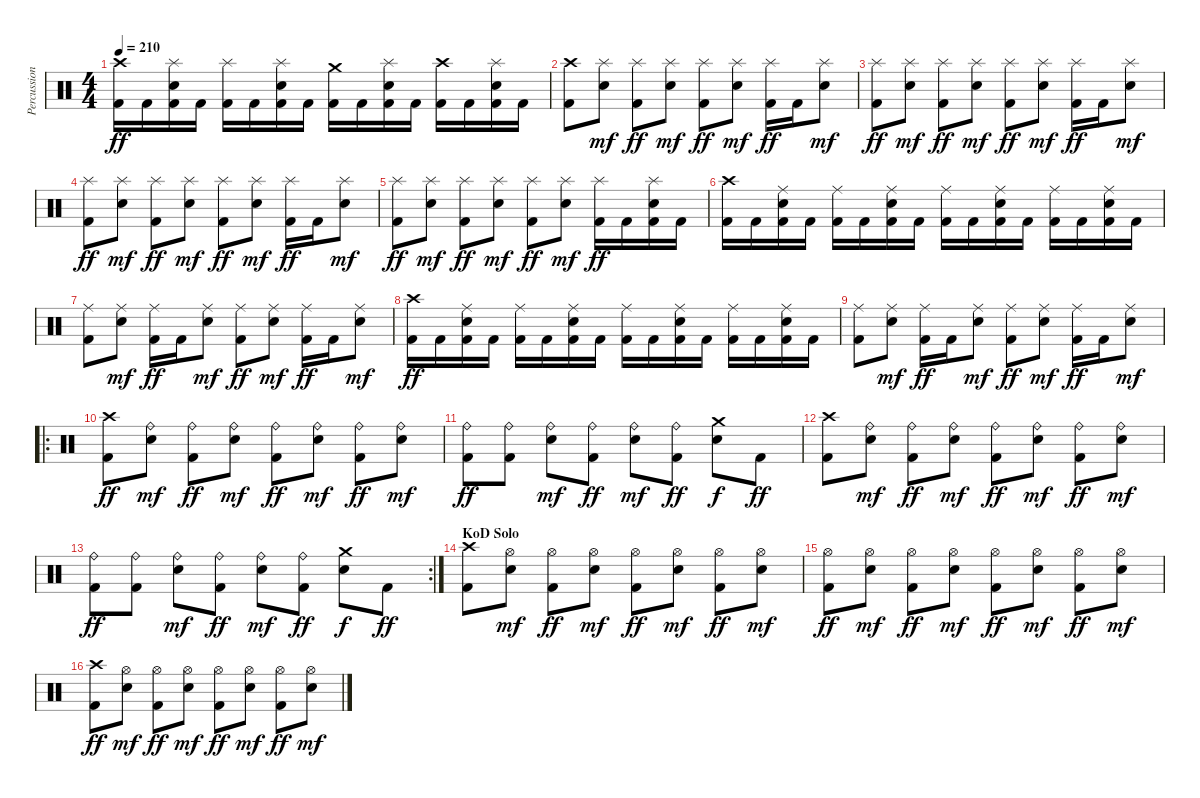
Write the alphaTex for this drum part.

\track ("Percussion" "Percussion") {instrument percussion}
\staff {score}
\articulation defaults
\ts (4 4)
\tempo 210
\clef neutral
\ks c
("Crash high (hit)" "Kick (hit) 2").16{dy ff} "Kick (hit) 2".16 ("Splash (hit)" "Snare (hit) 2" "Kick (hit) 2").16 "Kick (hit) 2".16 ("Splash (hit)" "Kick (hit) 2").16 "Kick (hit) 2".16 ("Splash (hit)" "Snare (hit) 2" "Kick (hit) 2").16 "Kick (hit) 2".16 ("Crash medium (hit)" "Kick (hit) 2").16 "Kick (hit) 2".16 ("Splash (hit)" "Snare (hit) 2" "Kick (hit) 2").16 "Kick (hit) 2".16 ("Crash high (hit)" "Kick (hit) 2").16 "Kick (hit) 2".16 ("Splash (hit)" "Snare (hit) 2" "Kick (hit) 2").16 "Kick (hit) 2".16 |
("Crash high (hit)" "Kick (hit) 2").8 ("Splash (hit)" "Snare (hit) 2").8{dy mf} ("Splash (hit)" "Kick (hit) 2").8{dy ff} ("Splash (hit)" "Snare (hit) 2").8{dy mf} ("Splash (hit)" "Kick (hit) 2").8{dy ff} ("Splash (hit)" "Snare (hit) 2").8{dy mf} ("Splash (hit)" "Kick (hit) 2").16{dy ff} "Kick (hit) 2".16 ("Splash (hit)" "Snare (hit) 2").8{dy mf} |
("Splash (hit)" "Kick (hit) 2").8{dy ff} ("Splash (hit)" "Snare (hit) 2").8{dy mf} ("Splash (hit)" "Kick (hit) 2").8{dy ff} ("Splash (hit)" "Snare (hit) 2").8{dy mf} ("Splash (hit)" "Kick (hit) 2").8{dy ff} ("Splash (hit)" "Snare (hit) 2").8{dy mf} ("Splash (hit)" "Kick (hit) 2").16{dy ff} "Kick (hit) 2".16 ("Splash (hit)" "Snare (hit) 2").8{dy mf} |
("Splash (hit)" "Kick (hit) 2").8{dy ff} ("Splash (hit)" "Snare (hit) 2").8{dy mf} ("Splash (hit)" "Kick (hit) 2").8{dy ff} ("Splash (hit)" "Snare (hit) 2").8{dy mf} ("Splash (hit)" "Kick (hit) 2").8{dy ff} ("Splash (hit)" "Snare (hit) 2").8{dy mf} ("Splash (hit)" "Kick (hit) 2").16{dy ff} "Kick (hit) 2".16 ("Splash (hit)" "Snare (hit) 2").8{dy mf} |
("Splash (hit)" "Kick (hit) 2").8{dy ff} ("Splash (hit)" "Snare (hit) 2").8{dy mf} ("Splash (hit)" "Kick (hit) 2").8{dy ff} ("Splash (hit)" "Snare (hit) 2").8{dy mf} ("Splash (hit)" "Kick (hit) 2").8{dy ff} ("Splash (hit)" "Snare (hit) 2").8{dy mf} ("Splash (hit)" "Kick (hit) 2").16{dy ff} "Kick (hit) 2".16 ("Splash (hit)" "Snare (hit) 2" "Kick (hit) 2").16 "Kick (hit) 2".16 |
("Crash high (hit)" "Kick (hit) 2").16 "Kick (hit) 2".16 ("Ride (middle)" "Snare (hit) 2" "Kick (hit) 2").16 "Kick (hit) 2".16 ("Ride (middle)" "Kick (hit) 2").16 "Kick (hit) 2".16 ("Ride (middle)" "Snare (hit) 2" "Kick (hit) 2").16 "Kick (hit) 2".16 ("Ride (middle)" "Kick (hit) 2").16 "Kick (hit) 2".16 ("Ride (middle)" "Snare (hit) 2" "Kick (hit) 2").16 "Kick (hit) 2".16 ("Ride (middle)" "Kick (hit) 2").16 "Kick (hit) 2".16 ("Ride (middle)" "Snare (hit) 2" "Kick (hit) 2").16 "Kick (hit) 2".16 |
("Ride (middle)" "Kick (hit) 2").8 ("Ride (middle)" "Snare (hit) 2").8{dy mf} ("Ride (middle)" "Kick (hit) 2").16{dy ff} "Kick (hit) 2".16 ("Ride (middle)" "Snare (hit) 2").8{dy mf} ("Ride (middle)" "Kick (hit) 2").8{dy ff} ("Ride (middle)" "Snare (hit) 2").8{dy mf} ("Ride (middle)" "Kick (hit) 2").16{dy ff} "Kick (hit) 2".16 ("Ride (middle)" "Snare (hit) 2").8{dy mf} |
("Crash high (hit)" "Kick (hit) 2").16{dy ff} "Kick (hit) 2".16 ("Ride (middle)" "Snare (hit) 2" "Kick (hit) 2").16 "Kick (hit) 2".16 ("Ride (middle)" "Kick (hit) 2").16 "Kick (hit) 2".16 ("Ride (middle)" "Snare (hit) 2" "Kick (hit) 2").16 "Kick (hit) 2".16 ("Ride (middle)" "Kick (hit) 2").16 "Kick (hit) 2".16 ("Ride (middle)" "Snare (hit) 2" "Kick (hit) 2").16 "Kick (hit) 2".16 ("Ride (middle)" "Kick (hit) 2").16 "Kick (hit) 2".16 ("Ride (middle)" "Snare (hit) 2" "Kick (hit) 2").16 "Kick (hit) 2".16 |
("Ride (middle)" "Kick (hit) 2").8 ("Ride (middle)" "Snare (hit) 2").8{dy mf} ("Ride (middle)" "Kick (hit) 2").16{dy ff} "Kick (hit) 2".16 ("Ride (middle)" "Snare (hit) 2").8{dy mf} ("Ride (middle)" "Kick (hit) 2").8{dy ff} ("Ride (middle)" "Snare (hit) 2").8{dy mf} ("Ride (middle)" "Kick (hit) 2").16{dy ff} "Kick (hit) 2".16 ("Ride (middle)" "Snare (hit) 2").8{dy mf} |
\ro
("Crash high (hit)" "Kick (hit) 2").8{dy ff} ("Ride (bell)" "Snare (hit) 2").8{dy mf} ("Ride (bell)" "Kick (hit) 2").8{dy ff} ("Ride (bell)" "Snare (hit) 2").8{dy mf} ("Ride (bell)" "Kick (hit) 2").8{dy ff} ("Ride (bell)" "Snare (hit) 2").8{dy mf} ("Ride (bell)" "Kick (hit) 2").8{dy ff} ("Ride (bell)" "Snare (hit) 2").8{dy mf} |
("Ride (bell)" "Kick (hit) 2").8{dy ff} ("Ride (bell)" "Kick (hit) 2").8 ("Ride (bell)" "Snare (hit) 2").8{dy mf} ("Ride (bell)" "Kick (hit) 2").8{dy ff} ("Ride (bell)" "Snare (hit) 2").8{dy mf} ("Ride (bell)" "Kick (hit) 2").8{dy ff} ("Crash medium (hit)" "Snare (hit) 2").8{dy f} "Kick (hit) 2".8{dy ff} |
("Crash high (hit)" "Kick (hit) 2").8 ("Ride (bell)" "Snare (hit) 2").8{dy mf} ("Ride (bell)" "Kick (hit) 2").8{dy ff} ("Ride (bell)" "Snare (hit) 2").8{dy mf} ("Ride (bell)" "Kick (hit) 2").8{dy ff} ("Ride (bell)" "Snare (hit) 2").8{dy mf} ("Ride (bell)" "Kick (hit) 2").8{dy ff} ("Ride (bell)" "Snare (hit) 2").8{dy mf} |
\rc 2
("Ride (bell)" "Kick (hit) 2").8{dy ff} ("Ride (bell)" "Kick (hit) 2").8 ("Ride (bell)" "Snare (hit) 2").8{dy mf} ("Ride (bell)" "Kick (hit) 2").8{dy ff} ("Ride (bell)" "Snare (hit) 2").8{dy mf} ("Ride (bell)" "Kick (hit) 2").8{dy ff} ("Crash medium (hit)" "Snare (hit) 2").8{dy f} "Kick (hit) 2".8{dy ff} |
\section ("" "KoD Solo")
("Crash high (hit)" "Kick (hit) 2").8 ("Hi-Hat (open)" "Snare (hit) 2").8{dy mf} ("Hi-Hat (open)" "Kick (hit) 2").8{dy ff} ("Hi-Hat (open)" "Snare (hit) 2").8{dy mf} ("Hi-Hat (open)" "Kick (hit) 2").8{dy ff} ("Hi-Hat (open)" "Snare (hit) 2").8{dy mf} ("Hi-Hat (open)" "Kick (hit) 2").8{dy ff} ("Hi-Hat (open)" "Snare (hit) 2").8{dy mf} |
("Hi-Hat (open)" "Kick (hit) 2").8{dy ff} ("Hi-Hat (open)" "Snare (hit) 2").8{dy mf} ("Hi-Hat (open)" "Kick (hit) 2").8{dy ff} ("Hi-Hat (open)" "Snare (hit) 2").8{dy mf} ("Hi-Hat (open)" "Kick (hit) 2").8{dy ff} ("Hi-Hat (open)" "Snare (hit) 2").8{dy mf} ("Hi-Hat (open)" "Kick (hit) 2").8{dy ff} ("Hi-Hat (open)" "Snare (hit) 2").8{dy mf} |
("Crash high (hit)" "Kick (hit) 2").8{dy ff} ("Hi-Hat (open)" "Snare (hit) 2").8{dy mf} ("Hi-Hat (open)" "Kick (hit) 2").8{dy ff} ("Hi-Hat (open)" "Snare (hit) 2").8{dy mf} ("Hi-Hat (open)" "Kick (hit) 2").8{dy ff} ("Hi-Hat (open)" "Snare (hit) 2").8{dy mf} ("Hi-Hat (open)" "Kick (hit) 2").8{dy ff} ("Hi-Hat (open)" "Snare (hit) 2").8{dy mf}
